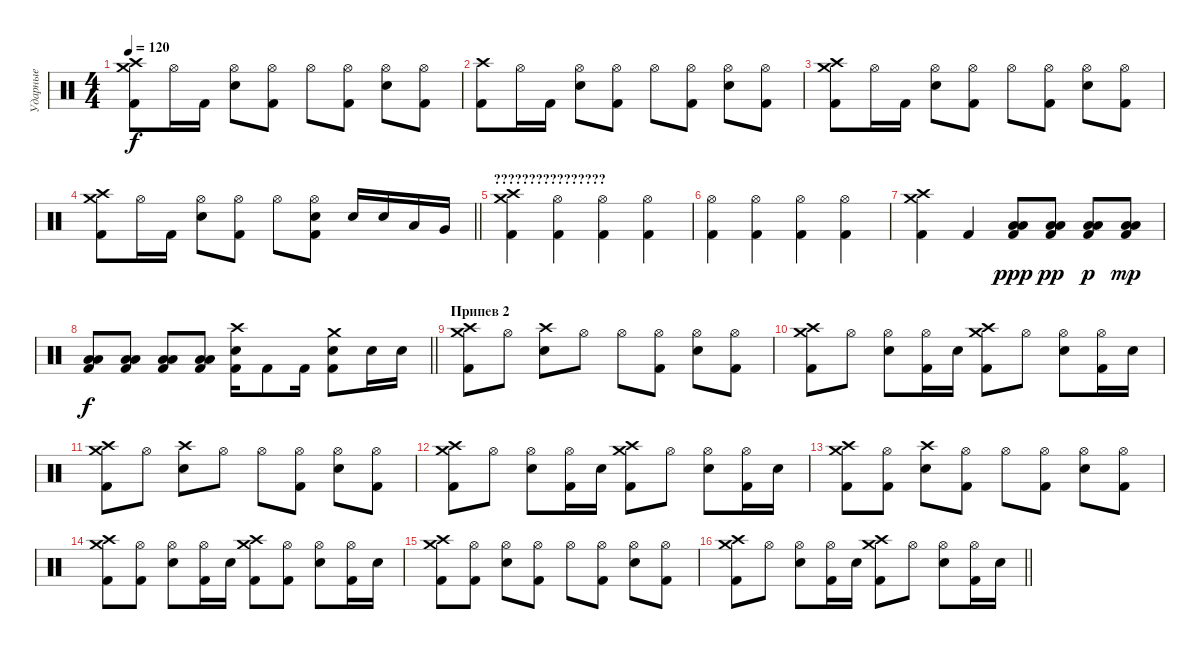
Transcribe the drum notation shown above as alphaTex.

\track ("Ударные" "Ударные") {instrument percussion}
\staff
\articulation defaults
\ts (4 4)
\tempo 120
\clef neutral
\ks c
("Crash high (hit)" "Crash medium (hit)" "Kick (hit) 2").8{dy f} "Hi-Hat (open)".16 "Kick (hit) 2".16 ("Hi-Hat (open)" "Electric Snare (hit)").8 ("Hi-Hat (open)" "Kick (hit) 2").8 "Hi-Hat (open)".8 ("Hi-Hat (open)" "Kick (hit) 2").8 ("Hi-Hat (open)" "Electric Snare (hit)").8 ("Hi-Hat (open)" "Kick (hit) 2").8 |
("Crash high (hit)" "Kick (hit) 2").8 "Hi-Hat (open)".16 "Kick (hit) 2".16 ("Hi-Hat (open)" "Electric Snare (hit)").8 ("Hi-Hat (open)" "Kick (hit) 2").8 "Hi-Hat (open)".8 ("Hi-Hat (open)" "Kick (hit) 2").8 ("Hi-Hat (open)" "Electric Snare (hit)").8 ("Hi-Hat (open)" "Kick (hit) 2").8 |
("Crash high (hit)" "Crash medium (hit)" "Kick (hit) 2").8 "Hi-Hat (open)".16 "Kick (hit) 2".16 ("Hi-Hat (open)" "Electric Snare (hit)").8 ("Hi-Hat (open)" "Kick (hit) 2").8 "Hi-Hat (open)".8 ("Hi-Hat (open)" "Kick (hit) 2").8 ("Hi-Hat (open)" "Electric Snare (hit)").8 ("Hi-Hat (open)" "Kick (hit) 2").8 |
\barLineRight lightlight
("Crash high (hit)" "Crash medium (hit)" "Kick (hit) 2").8 "Hi-Hat (open)".16 "Kick (hit) 2".16 ("Hi-Hat (open)" "Electric Snare (hit)").8 ("Hi-Hat (open)" "Kick (hit) 2").8 "Hi-Hat (open)".8 ("Hi-Hat (open)" "Electric Snare (hit)" "Kick (hit) 2").8 "Electric Snare (hit)".16 "Electric Snare (hit)".16 "Low Tom (hit)".16 "Very Low Tom (hit)".16 |
\section ("" "????????????????")
("Crash high (hit)" "Crash medium (hit)" "Kick (hit) 2").4 ("Hi-Hat (open)" "Kick (hit) 2").4 ("Hi-Hat (open)" "Kick (hit) 2").4 ("Hi-Hat (open)" "Kick (hit) 2").4 |
("Hi-Hat (open)" "Kick (hit) 2").4 ("Hi-Hat (open)" "Kick (hit) 2").4 ("Hi-Hat (open)" "Kick (hit) 2").4 ("Hi-Hat (open)" "Kick (hit) 2").4 |
("Crash high (hit)" "Crash medium (hit)" "Kick (hit) 2").4 "Kick (hit) 2".4 ("Low Tom (hit)" "Low Floor Tom (hit)" "Kick (hit) 2").8{dy ppp} ("Low Tom (hit)" "Low Floor Tom (hit)" "Kick (hit) 2").8{dy pp} ("Low Tom (hit)" "Low Floor Tom (hit)" "Kick (hit) 2").8{dy p} ("Low Tom (hit)" "Low Floor Tom (hit)" "Kick (hit) 2").8{dy mp} |
\barLineRight lightlight
("Low Tom (hit)" "Low Floor Tom (hit)" "Kick (hit) 2").8{dy f} ("Low Tom (hit)" "Low Floor Tom (hit)" "Kick (hit) 2").8 ("Low Tom (hit)" "Low Floor Tom (hit)" "Kick (hit) 2").8 ("Low Tom (hit)" "Low Floor Tom (hit)" "Kick (hit) 2").8 ("Crash high (hit)" "Electric Snare (hit)" "Kick (hit) 2").16 "Kick (hit) 2".8 "Kick (hit) 2".16 ("Crash medium (hit)" "Electric Snare (hit)" "Kick (hit) 2").8 "Electric Snare (hit)".16 "Electric Snare (hit)".16 |
\section ("" "Припев 2")
("Crash high (hit)" "Crash medium (hit)" "Kick (hit) 2").8 "Hi-Hat (open)".8 ("Crash high (hit)" "Electric Snare (hit)").8 "Hi-Hat (open)".8 "Hi-Hat (open)".8 ("Hi-Hat (open)" "Kick (hit) 2").8 ("Hi-Hat (open)" "Electric Snare (hit)").8 ("Hi-Hat (open)" "Kick (hit) 2").8 |
("Crash high (hit)" "Crash medium (hit)" "Kick (hit) 2").8 "Hi-Hat (open)".8 ("Hi-Hat (open)" "Electric Snare (hit)").8 ("Hi-Hat (open)" "Kick (hit) 2").16 "Electric Snare (hit)".16 ("Crash high (hit)" "Crash medium (hit)" "Kick (hit) 2").8 "Hi-Hat (open)".8 ("Hi-Hat (open)" "Electric Snare (hit)").8 ("Hi-Hat (open)" "Kick (hit) 2").16 "Electric Snare (hit)".16 |
("Crash high (hit)" "Crash medium (hit)" "Kick (hit) 2").8 "Hi-Hat (open)".8 ("Crash high (hit)" "Electric Snare (hit)").8 "Hi-Hat (open)".8 "Hi-Hat (open)".8 ("Hi-Hat (open)" "Kick (hit) 2").8 ("Hi-Hat (open)" "Electric Snare (hit)").8 ("Hi-Hat (open)" "Kick (hit) 2").8 |
("Crash high (hit)" "Crash medium (hit)" "Kick (hit) 2").8 "Hi-Hat (open)".8 ("Hi-Hat (open)" "Electric Snare (hit)").8 ("Hi-Hat (open)" "Kick (hit) 2").16 "Electric Snare (hit)".16 ("Crash high (hit)" "Crash medium (hit)" "Kick (hit) 2").8 "Hi-Hat (open)".8 ("Hi-Hat (open)" "Electric Snare (hit)").8 ("Hi-Hat (open)" "Kick (hit) 2").16 "Electric Snare (hit)".16 |
("Crash high (hit)" "Crash medium (hit)" "Kick (hit) 2").8 ("Hi-Hat (open)" "Kick (hit) 2").8 ("Crash high (hit)" "Electric Snare (hit)").8 ("Hi-Hat (open)" "Kick (hit) 2").8 "Hi-Hat (open)".8 ("Hi-Hat (open)" "Kick (hit) 2").8 ("Hi-Hat (open)" "Electric Snare (hit)").8 ("Hi-Hat (open)" "Kick (hit) 2").8 |
("Crash high (hit)" "Crash medium (hit)" "Kick (hit) 2").8 ("Hi-Hat (open)" "Kick (hit) 2").8 ("Hi-Hat (open)" "Electric Snare (hit)").8 ("Hi-Hat (open)" "Kick (hit) 2").16 "Electric Snare (hit)".16 ("Crash high (hit)" "Crash medium (hit)" "Kick (hit) 2").8 ("Hi-Hat (open)" "Kick (hit) 2").8 ("Hi-Hat (open)" "Electric Snare (hit)").8 ("Hi-Hat (open)" "Kick (hit) 2").16 "Electric Snare (hit)".16 |
("Crash high (hit)" "Crash medium (hit)" "Kick (hit) 2").8 ("Hi-Hat (open)" "Kick (hit) 2").8 ("Hi-Hat (open)" "Electric Snare (hit)").8 ("Hi-Hat (open)" "Kick (hit) 2").8 "Hi-Hat (open)".8 ("Hi-Hat (open)" "Kick (hit) 2").8 ("Hi-Hat (open)" "Electric Snare (hit)").8 ("Hi-Hat (open)" "Kick (hit) 2").8 |
\barLineRight lightlight
("Crash high (hit)" "Crash medium (hit)" "Kick (hit) 2").8 "Hi-Hat (open)".8 ("Hi-Hat (open)" "Electric Snare (hit)").8 ("Hi-Hat (open)" "Kick (hit) 2").16 "Electric Snare (hit)".16 ("Crash high (hit)" "Crash medium (hit)" "Kick (hit) 2").8 "Hi-Hat (open)".8 ("Hi-Hat (open)" "Electric Snare (hit)").8 ("Hi-Hat (open)" "Kick (hit) 2").16 "Electric Snare (hit)".16
